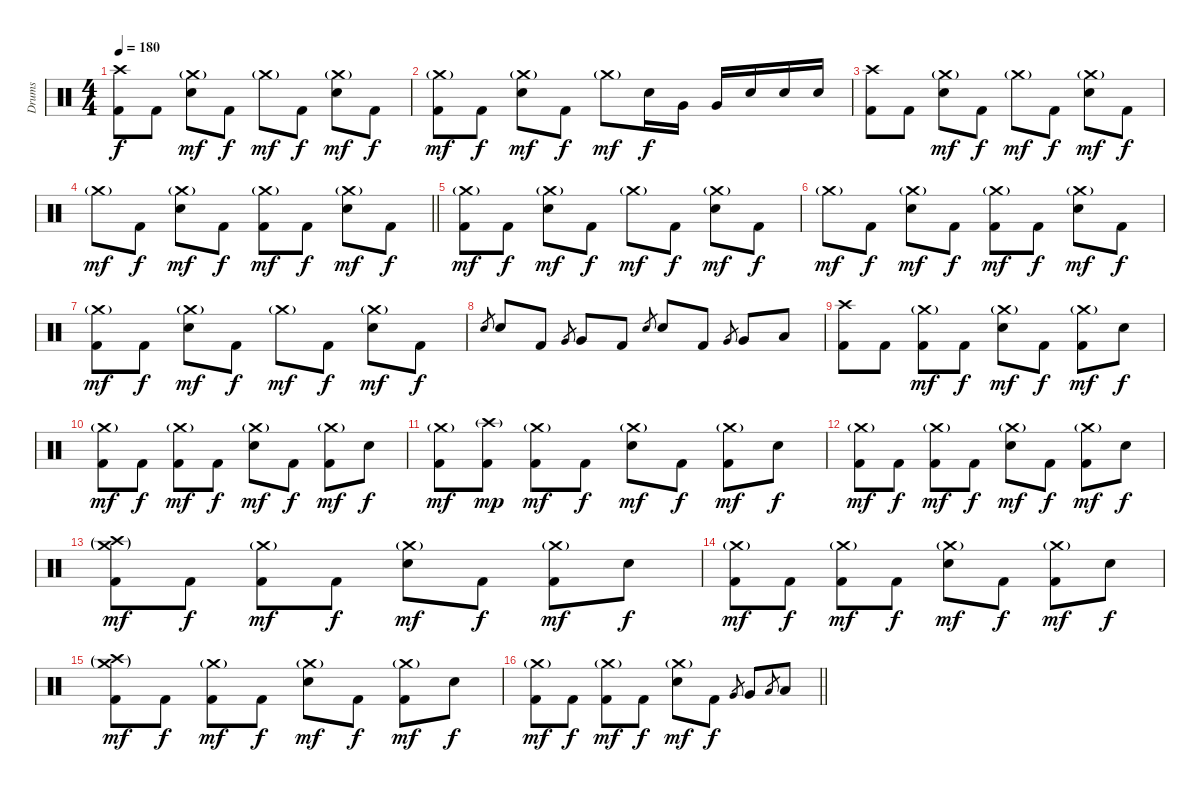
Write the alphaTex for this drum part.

\track ("Drums" "Drums") {instrument percussion}
\staff {score}
\articulation defaults
\ts (4 4)
\tempo 180
\clef neutral
\ks c
("Crash high (hit)" "Kick (hit) 2").8{dy f} "Kick (hit) 2".8 ("Crash medium (hit)"{g} "Electric Snare (hit)").8{dy mf} "Kick (hit) 2".8{dy f} "Crash medium (hit)"{g}.8{dy mf} "Kick (hit) 2".8{dy f} ("Crash medium (hit)"{g} "Electric Snare (hit)").8{dy mf} "Kick (hit) 2".8{dy f} |
("Crash medium (hit)"{g} "Kick (hit) 2").8{dy mf} "Kick (hit) 2".8{dy f} ("Crash medium (hit)"{g} "Electric Snare (hit)").8{dy mf} "Kick (hit) 2".8{dy f} "Crash medium (hit)"{g}.8{dy mf} "Electric Snare (hit)".16{dy f} "Very Low Tom (hit)".16 "Very Low Tom (hit)".16 "Electric Snare (hit)".16 "Electric Snare (hit)".16 "Electric Snare (hit)".16 |
("Crash high (hit)" "Kick (hit) 2").8 "Kick (hit) 2".8 ("Crash medium (hit)"{g} "Electric Snare (hit)").8{dy mf} "Kick (hit) 2".8{dy f} "Crash medium (hit)"{g}.8{dy mf} "Kick (hit) 2".8{dy f} ("Crash medium (hit)"{g} "Electric Snare (hit)").8{dy mf} "Kick (hit) 2".8{dy f} |
\barLineRight lightlight "Crash medium (hit)"{g}.8{dy mf} "Kick (hit) 2".8{dy f}
("Crash medium (hit)"{g} "Electric Snare (hit)").8{dy mf} "Kick (hit) 2".8{dy f} ("Crash medium (hit)"{g} "Kick (hit) 2").8{dy mf} "Kick (hit) 2".8{dy f} ("Crash medium (hit)"{g} "Electric Snare (hit)").8{dy mf} "Kick (hit) 2".8{dy f} |
("Crash medium (hit)"{g} "Kick (hit) 2").8{dy mf} "Kick (hit) 2".8{dy f} ("Crash medium (hit)"{g} "Electric Snare (hit)").8{dy mf} "Kick (hit) 2".8{dy f} "Crash medium (hit)"{g}.8{dy mf} "Kick (hit) 2".8{dy f} ("Crash medium (hit)"{g} "Electric Snare (hit)").8{dy mf} "Kick (hit) 2".8{dy f} |
"Crash medium (hit)"{g}.8{dy mf} "Kick (hit) 2".8{dy f} ("Crash medium (hit)"{g} "Electric Snare (hit)").8{dy mf} "Kick (hit) 2".8{dy f} ("Crash medium (hit)"{g} "Kick (hit) 2").8{dy mf} "Kick (hit) 2".8{dy f} ("Crash medium (hit)"{g} "Electric Snare (hit)").8{dy mf} "Kick (hit) 2".8{dy f} |
("Crash medium (hit)"{g} "Kick (hit) 2").8{dy mf} "Kick (hit) 2".8{dy f} ("Crash medium (hit)"{g} "Electric Snare (hit)").8{dy mf} "Kick (hit) 2".8{dy f} "Crash medium (hit)"{g}.8{dy mf} "Kick (hit) 2".8{dy f} ("Crash medium (hit)"{g} "Electric Snare (hit)").8{dy mf} "Kick (hit) 2".8{dy f} |
"Electric Snare (hit)".8{gr} "Electric Snare (hit)".8 "Kick (hit) 2".8 "Very Low Tom (hit)".8{gr} "Very Low Tom (hit)".8 "Kick (hit) 2".8 "Electric Snare (hit)".8{gr} "Electric Snare (hit)".8 "Kick (hit) 2".8 "Very Low Tom (hit)".8{gr} "Very Low Tom (hit)".8 "Low Floor Tom (hit)".8 |
("Crash high (hit)" "Kick (hit) 2").8 "Kick (hit) 2".8 ("Crash medium (hit)"{g} "Kick (hit) 2").8{dy mf} "Kick (hit) 2".8{dy f} ("Crash medium (hit)"{g} "Electric Snare (hit)").8{dy mf} "Kick (hit) 2".8{dy f} ("Crash medium (hit)"{g} "Kick (hit) 2").8{dy mf} "Electric Snare (hit)".8{dy f} |
("Crash medium (hit)"{g} "Kick (hit) 2").8{dy mf} "Kick (hit) 2".8{dy f} ("Crash medium (hit)"{g} "Kick (hit) 2").8{dy mf} "Kick (hit) 2".8{dy f} ("Crash medium (hit)"{g} "Electric Snare (hit)").8{dy mf} "Kick (hit) 2".8{dy f} ("Crash medium (hit)"{g} "Kick (hit) 2").8{dy mf} "Electric Snare (hit)".8{dy f} |
("Crash medium (hit)"{g} "Kick (hit) 2").8{dy mf} ("Crash high (hit)"{g} "Kick (hit) 2").8{dy mp} ("Crash medium (hit)"{g} "Kick (hit) 2").8{dy mf} "Kick (hit) 2".8{dy f} ("Crash medium (hit)"{g} "Electric Snare (hit)").8{dy mf} "Kick (hit) 2".8{dy f} ("Crash medium (hit)"{g} "Kick (hit) 2").8{dy mf} "Electric Snare (hit)".8{dy f} |
("Crash medium (hit)"{g} "Kick (hit) 2").8{dy mf} "Kick (hit) 2".8{dy f} ("Crash medium (hit)"{g} "Kick (hit) 2").8{dy mf} "Kick (hit) 2".8{dy f} ("Crash medium (hit)"{g} "Electric Snare (hit)").8{dy mf} "Kick (hit) 2".8{dy f} ("Crash medium (hit)"{g} "Kick (hit) 2").8{dy mf} "Electric Snare (hit)".8{dy f} |
("Crash high (hit)"{g} "Crash medium (hit)"{g} "Kick (hit) 2").8{dy mf} "Kick (hit) 2".8{dy f} ("Crash medium (hit)"{g} "Kick (hit) 2").8{dy mf} "Kick (hit) 2".8{dy f} ("Crash medium (hit)"{g} "Electric Snare (hit)").8{dy mf} "Kick (hit) 2".8{dy f} ("Crash medium (hit)"{g} "Kick (hit) 2").8{dy mf} "Electric Snare (hit)".8{dy f} |
("Crash medium (hit)"{g} "Kick (hit) 2").8{dy mf} "Kick (hit) 2".8{dy f} ("Crash medium (hit)"{g} "Kick (hit) 2").8{dy mf} "Kick (hit) 2".8{dy f} ("Crash medium (hit)"{g} "Electric Snare (hit)").8{dy mf} "Kick (hit) 2".8{dy f} ("Crash medium (hit)"{g} "Kick (hit) 2").8{dy mf} "Electric Snare (hit)".8{dy f} |
("Crash high (hit)"{g} "Crash medium (hit)"{g} "Kick (hit) 2").8{dy mf} "Kick (hit) 2".8{dy f} ("Crash medium (hit)"{g} "Kick (hit) 2").8{dy mf} "Kick (hit) 2".8{dy f} ("Crash medium (hit)"{g} "Electric Snare (hit)").8{dy mf} "Kick (hit) 2".8{dy f} ("Crash medium (hit)"{g} "Kick (hit) 2").8{dy mf} "Electric Snare (hit)".8{dy f} |
\barLineRight lightlight
("Crash medium (hit)"{g} "Kick (hit) 2").8{dy mf} "Kick (hit) 2".8{dy f} ("Crash medium (hit)"{g} "Kick (hit) 2").8{dy mf} "Kick (hit) 2".8{dy f} ("Crash medium (hit)"{g} "Electric Snare (hit)").8{dy mf} "Kick (hit) 2".8{dy f} "Very Low Tom (hit)".8{gr} "Very Low Tom (hit)".8 "Low Floor Tom (hit)".8{gr} "Low Floor Tom (hit)".8
